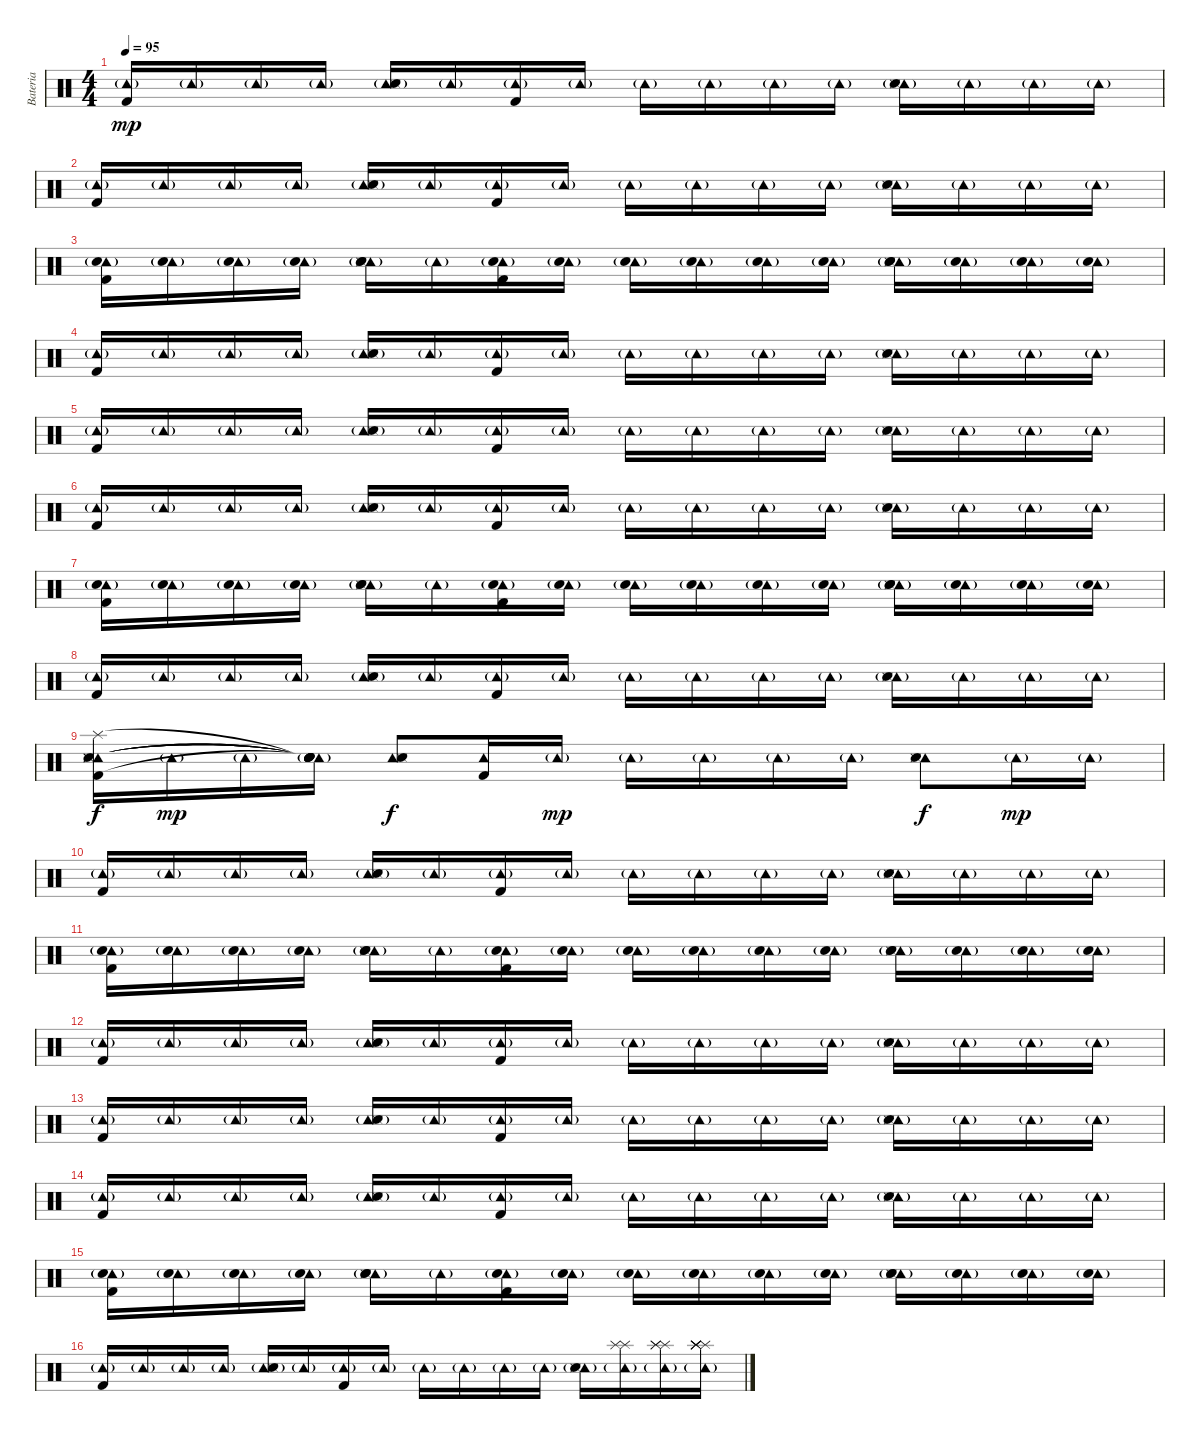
\track ("Bateria" "Bateria") {instrument percussion}
\staff {score}
\articulation defaults
\ts (4 4)
\tempo 95
\clef neutral
\ks c
("Tambourine (hit)"{g} "Kick (hit) 2").16{dy mp} "Tambourine (hit)"{g}.16 "Tambourine (hit)"{g}.16 "Tambourine (hit)"{g}.16 ("Tambourine (hit)"{g} "Snare (side stick) 3" "Snare (hit) 2").16 "Tambourine (hit)"{g}.16 ("Tambourine (hit)"{g} "Kick (hit) 2").16 "Tambourine (hit)"{g}.16 "Tambourine (hit)"{g}.16 "Tambourine (hit)"{g}.16 "Tambourine (hit)"{g}.16 "Tambourine (hit)"{g}.16 ("Tambourine (hit)"{g} "Snare (side stick) 3" "Snare (hit) 2").16 "Tambourine (hit)"{g}.16 "Tambourine (hit)"{g}.16 "Tambourine (hit)"{g}.16 |
("Tambourine (hit)"{g} "Kick (hit) 2").16 "Tambourine (hit)"{g}.16 "Tambourine (hit)"{g}.16 "Tambourine (hit)"{g}.16 ("Tambourine (hit)"{g} "Snare (side stick) 3" "Snare (hit) 2").16 "Tambourine (hit)"{g}.16 ("Tambourine (hit)"{g} "Kick (hit) 2").16 "Tambourine (hit)"{g}.16 "Tambourine (hit)"{g}.16 "Tambourine (hit)"{g}.16 "Tambourine (hit)"{g}.16 "Tambourine (hit)"{g}.16 ("Tambourine (hit)"{g} "Snare (side stick) 3" "Snare (hit) 2").16 "Tambourine (hit)"{g}.16 "Tambourine (hit)"{g}.16 "Tambourine (hit)"{g}.16 |
("Tambourine (hit)"{g} "Hand Clap (hit)" "Kick (hit) 2").16 ("Tambourine (hit)"{g} "Hand Clap (hit)").16 ("Tambourine (hit)"{g} "Hand Clap (hit)").16 ("Tambourine (hit)"{g} "Hand Clap (hit)").16 ("Tambourine (hit)"{g} "Hand Clap (hit)" "Snare (side stick) 3" "Snare (hit) 2").16 "Tambourine (hit)"{g}.16 ("Tambourine (hit)"{g} "Hand Clap (hit)" "Kick (hit) 2").16 ("Tambourine (hit)"{g} "Hand Clap (hit)").16 ("Tambourine (hit)"{g} "Hand Clap (hit)").16 ("Tambourine (hit)"{g} "Hand Clap (hit)").16 ("Tambourine (hit)"{g} "Hand Clap (hit)").16 ("Tambourine (hit)"{g} "Hand Clap (hit)").16 ("Tambourine (hit)"{g} "Hand Clap (hit)" "Snare (side stick) 3" "Snare (hit) 2").16 ("Tambourine (hit)"{g} "Hand Clap (hit)").16 ("Tambourine (hit)"{g} "Hand Clap (hit)").16 ("Tambourine (hit)"{g} "Hand Clap (hit)").16 |
("Tambourine (hit)"{g} "Kick (hit) 2").16 "Tambourine (hit)"{g}.16 "Tambourine (hit)"{g}.16 "Tambourine (hit)"{g}.16 ("Tambourine (hit)"{g} "Snare (side stick) 3" "Snare (hit) 2").16 "Tambourine (hit)"{g}.16 ("Tambourine (hit)"{g} "Kick (hit) 2").16 "Tambourine (hit)"{g}.16 "Tambourine (hit)"{g}.16 "Tambourine (hit)"{g}.16 "Tambourine (hit)"{g}.16 "Tambourine (hit)"{g}.16 ("Tambourine (hit)"{g} "Snare (side stick) 3" "Snare (hit) 2").16 "Tambourine (hit)"{g}.16 "Tambourine (hit)"{g}.16 "Tambourine (hit)"{g}.16 |
("Tambourine (hit)"{g} "Kick (hit) 2").16 "Tambourine (hit)"{g}.16 "Tambourine (hit)"{g}.16 "Tambourine (hit)"{g}.16 ("Tambourine (hit)"{g} "Snare (side stick) 3" "Snare (hit) 2").16 "Tambourine (hit)"{g}.16 ("Tambourine (hit)"{g} "Kick (hit) 2").16 "Tambourine (hit)"{g}.16 "Tambourine (hit)"{g}.16 "Tambourine (hit)"{g}.16 "Tambourine (hit)"{g}.16 "Tambourine (hit)"{g}.16 ("Tambourine (hit)"{g} "Snare (side stick) 3" "Snare (hit) 2").16 "Tambourine (hit)"{g}.16 "Tambourine (hit)"{g}.16 "Tambourine (hit)"{g}.16 |
("Tambourine (hit)"{g} "Kick (hit) 2").16 "Tambourine (hit)"{g}.16 "Tambourine (hit)"{g}.16 "Tambourine (hit)"{g}.16 ("Tambourine (hit)"{g} "Snare (side stick) 3" "Snare (hit) 2").16 "Tambourine (hit)"{g}.16 ("Tambourine (hit)"{g} "Kick (hit) 2").16 "Tambourine (hit)"{g}.16 "Tambourine (hit)"{g}.16 "Tambourine (hit)"{g}.16 "Tambourine (hit)"{g}.16 "Tambourine (hit)"{g}.16 ("Tambourine (hit)"{g} "Snare (side stick) 3" "Snare (hit) 2").16 "Tambourine (hit)"{g}.16 "Tambourine (hit)"{g}.16 "Tambourine (hit)"{g}.16 |
("Tambourine (hit)"{g} "Hand Clap (hit)" "Kick (hit) 2").16 ("Tambourine (hit)"{g} "Hand Clap (hit)").16 ("Tambourine (hit)"{g} "Hand Clap (hit)").16 ("Tambourine (hit)"{g} "Hand Clap (hit)").16 ("Tambourine (hit)"{g} "Hand Clap (hit)" "Snare (side stick) 3" "Snare (hit) 2").16 "Tambourine (hit)"{g}.16 ("Tambourine (hit)"{g} "Hand Clap (hit)" "Kick (hit) 2").16 ("Tambourine (hit)"{g} "Hand Clap (hit)").16 ("Tambourine (hit)"{g} "Hand Clap (hit)").16 ("Tambourine (hit)"{g} "Hand Clap (hit)").16 ("Tambourine (hit)"{g} "Hand Clap (hit)").16 ("Tambourine (hit)"{g} "Hand Clap (hit)").16 ("Tambourine (hit)"{g} "Hand Clap (hit)" "Snare (side stick) 3" "Snare (hit) 2").16 ("Tambourine (hit)"{g} "Hand Clap (hit)").16 ("Tambourine (hit)"{g} "Hand Clap (hit)").16 ("Tambourine (hit)"{g} "Hand Clap (hit)").16 |
("Tambourine (hit)"{g} "Kick (hit) 2").16 "Tambourine (hit)"{g}.16 "Tambourine (hit)"{g}.16 "Tambourine (hit)"{g}.16 ("Tambourine (hit)"{g} "Snare (side stick) 3" "Snare (hit) 2").16 "Tambourine (hit)"{g}.16 ("Tambourine (hit)"{g} "Kick (hit) 2").16 "Tambourine (hit)"{g}.16 "Tambourine (hit)"{g}.16 "Tambourine (hit)"{g}.16 "Tambourine (hit)"{g}.16 "Tambourine (hit)"{g}.16 ("Tambourine (hit)"{g} "Snare (side stick) 3" "Snare (hit) 2").16 "Tambourine (hit)"{g}.16 "Tambourine (hit)"{g}.16 "Tambourine (hit)"{g}.16 |
("Tambourine (hit)" "Snare (side stick) 3" "Snare (side stick) 3" "Snare (hit) 2" "Splash (hit)" "Kick (hit) 2").16{dy f} "Tambourine (hit)"{g}.16{dy mp} "Tambourine (hit)"{g}.16 ("Tambourine (hit)"{g} "Snare (hit)"{t} "Snare (hit)"{t} "Snare (hit)"{t} "Snare (hit)"{t} "Snare (hit)"{t}).16 ("Tambourine (hit)" "Snare (side stick) 3" "Snare (hit) 2").8{dy f} ("Tambourine (hit)" "Kick (hit) 2").16 "Tambourine (hit)"{g}.16{dy mp} "Tambourine (hit)"{g}.16 "Tambourine (hit)"{g}.16 "Tambourine (hit)"{g}.16 "Tambourine (hit)"{g}.16 ("Tambourine (hit)" "Snare (side stick) 3" "Snare (hit) 2").8{dy f} "Tambourine (hit)"{g}.16{dy mp} "Tambourine (hit)"{g}.16 |
("Tambourine (hit)"{g} "Kick (hit) 2").16 "Tambourine (hit)"{g}.16 "Tambourine (hit)"{g}.16 "Tambourine (hit)"{g}.16 ("Tambourine (hit)"{g} "Snare (side stick) 3" "Snare (hit) 2").16 "Tambourine (hit)"{g}.16 ("Tambourine (hit)"{g} "Kick (hit) 2").16 "Tambourine (hit)"{g}.16 "Tambourine (hit)"{g}.16 "Tambourine (hit)"{g}.16 "Tambourine (hit)"{g}.16 "Tambourine (hit)"{g}.16 ("Tambourine (hit)"{g} "Snare (side stick) 3" "Snare (hit) 2").16 "Tambourine (hit)"{g}.16 "Tambourine (hit)"{g}.16 "Tambourine (hit)"{g}.16 |
("Tambourine (hit)"{g} "Hand Clap (hit)" "Kick (hit) 2").16 ("Tambourine (hit)"{g} "Hand Clap (hit)").16 ("Tambourine (hit)"{g} "Hand Clap (hit)").16 ("Tambourine (hit)"{g} "Hand Clap (hit)").16 ("Tambourine (hit)"{g} "Hand Clap (hit)" "Snare (side stick) 3" "Snare (hit) 2").16 "Tambourine (hit)"{g}.16 ("Tambourine (hit)"{g} "Hand Clap (hit)" "Kick (hit) 2").16 ("Tambourine (hit)"{g} "Hand Clap (hit)").16 ("Tambourine (hit)"{g} "Hand Clap (hit)").16 ("Tambourine (hit)"{g} "Hand Clap (hit)").16 ("Tambourine (hit)"{g} "Hand Clap (hit)").16 ("Tambourine (hit)"{g} "Hand Clap (hit)").16 ("Tambourine (hit)"{g} "Hand Clap (hit)" "Snare (side stick) 3" "Snare (hit) 2").16 ("Tambourine (hit)"{g} "Hand Clap (hit)").16 ("Tambourine (hit)"{g} "Hand Clap (hit)").16 ("Tambourine (hit)"{g} "Hand Clap (hit)").16 |
("Tambourine (hit)"{g} "Kick (hit) 2").16 "Tambourine (hit)"{g}.16 "Tambourine (hit)"{g}.16 "Tambourine (hit)"{g}.16 ("Tambourine (hit)"{g} "Snare (side stick) 3" "Snare (hit) 2").16 "Tambourine (hit)"{g}.16 ("Tambourine (hit)"{g} "Kick (hit) 2").16 "Tambourine (hit)"{g}.16 "Tambourine (hit)"{g}.16 "Tambourine (hit)"{g}.16 "Tambourine (hit)"{g}.16 "Tambourine (hit)"{g}.16 ("Tambourine (hit)"{g} "Snare (side stick) 3" "Snare (hit) 2").16 "Tambourine (hit)"{g}.16 "Tambourine (hit)"{g}.16 "Tambourine (hit)"{g}.16 |
("Tambourine (hit)"{g} "Kick (hit) 2").16 "Tambourine (hit)"{g}.16 "Tambourine (hit)"{g}.16 "Tambourine (hit)"{g}.16 ("Tambourine (hit)"{g} "Snare (side stick) 3" "Snare (hit) 2").16 "Tambourine (hit)"{g}.16 ("Tambourine (hit)"{g} "Kick (hit) 2").16 "Tambourine (hit)"{g}.16 "Tambourine (hit)"{g}.16 "Tambourine (hit)"{g}.16 "Tambourine (hit)"{g}.16 "Tambourine (hit)"{g}.16 ("Tambourine (hit)"{g} "Snare (side stick) 3" "Snare (hit) 2").16 "Tambourine (hit)"{g}.16 "Tambourine (hit)"{g}.16 "Tambourine (hit)"{g}.16 |
("Tambourine (hit)"{g} "Kick (hit) 2").16 "Tambourine (hit)"{g}.16 "Tambourine (hit)"{g}.16 "Tambourine (hit)"{g}.16 ("Tambourine (hit)"{g} "Snare (side stick) 3" "Snare (hit) 2").16 "Tambourine (hit)"{g}.16 ("Tambourine (hit)"{g} "Kick (hit) 2").16 "Tambourine (hit)"{g}.16 "Tambourine (hit)"{g}.16 "Tambourine (hit)"{g}.16 "Tambourine (hit)"{g}.16 "Tambourine (hit)"{g}.16 ("Tambourine (hit)"{g} "Snare (side stick) 3" "Snare (hit) 2").16 "Tambourine (hit)"{g}.16 "Tambourine (hit)"{g}.16 "Tambourine (hit)"{g}.16 |
("Tambourine (hit)"{g} "Hand Clap (hit)" "Kick (hit) 2").16 ("Tambourine (hit)"{g} "Hand Clap (hit)").16 ("Tambourine (hit)"{g} "Hand Clap (hit)").16 ("Tambourine (hit)"{g} "Hand Clap (hit)").16 ("Tambourine (hit)"{g} "Hand Clap (hit)" "Snare (side stick) 3" "Snare (hit) 2").16 "Tambourine (hit)"{g}.16 ("Tambourine (hit)"{g} "Hand Clap (hit)" "Kick (hit) 2").16 ("Tambourine (hit)"{g} "Hand Clap (hit)").16 ("Tambourine (hit)"{g} "Hand Clap (hit)").16 ("Tambourine (hit)"{g} "Hand Clap (hit)").16 ("Tambourine (hit)"{g} "Hand Clap (hit)").16 ("Tambourine (hit)"{g} "Hand Clap (hit)").16 ("Tambourine (hit)"{g} "Hand Clap (hit)" "Snare (side stick) 3" "Snare (hit) 2").16 ("Tambourine (hit)"{g} "Hand Clap (hit)").16 ("Tambourine (hit)"{g} "Hand Clap (hit)").16 ("Tambourine (hit)"{g} "Hand Clap (hit)").16 |
("Tambourine (hit)"{g} "Kick (hit) 2").16 "Tambourine (hit)"{g}.16 "Tambourine (hit)"{g}.16 "Tambourine (hit)"{g}.16 ("Tambourine (hit)"{g} "Snare (side stick) 3" "Snare (hit) 2").16 "Tambourine (hit)"{g}.16 ("Tambourine (hit)"{g} "Kick (hit) 2").16 "Tambourine (hit)"{g}.16 "Tambourine (hit)"{g}.16 "Tambourine (hit)"{g}.16 "Tambourine (hit)"{g}.16 "Tambourine (hit)"{g}.16 ("Tambourine (hit)"{g} "Snare (side stick) 3" "Snare (hit) 2").16 ("Tambourine (hit)"{g} "Splash (hit)" "Splash (hit)").16 ("Tambourine (hit)"{g} "Splash (hit)" "Splash (hit)" "Splash (hit)").16 ("Tambourine (hit)"{g} "Splash (hit)" "Splash (hit)" "Splash (hit)" "Splash (hit)" "Splash (hit)").16
